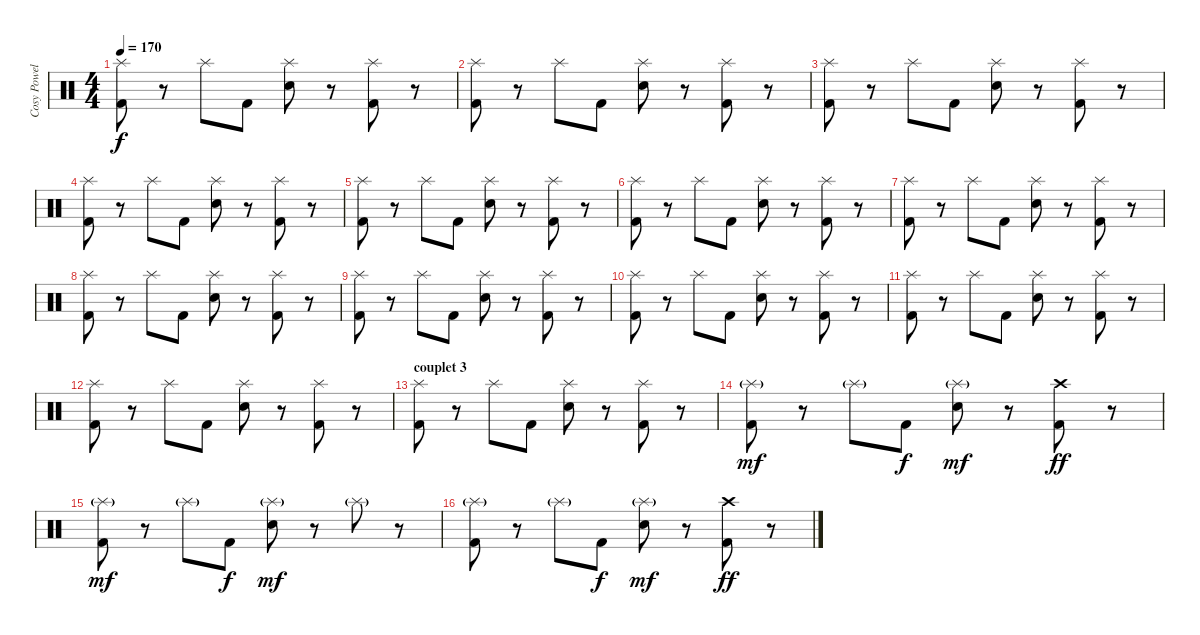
\track ("Cosy Powell" "Cosy Powel") {instrument percussion}
\staff {score}
\articulation defaults
\ts (4 4)
\tempo 170
\clef neutral
\ks c
("Splash (hit)" "Kick (hit) 2").8{dy f} r.8 "Splash (hit)".8 "Kick (hit) 2".8 ("Splash (hit)" "Snare (hit) 2").8 r.8 ("Splash (hit)" "Kick (hit) 2").8 r.8 |
("Splash (hit)" "Kick (hit) 2").8 r.8 "Splash (hit)".8 "Kick (hit) 2".8 ("Splash (hit)" "Snare (hit) 2").8 r.8 ("Splash (hit)" "Kick (hit) 2").8 r.8 |
("Splash (hit)" "Kick (hit) 2").8 r.8 "Splash (hit)".8 "Kick (hit) 2".8 ("Splash (hit)" "Snare (hit) 2").8 r.8 ("Splash (hit)" "Kick (hit) 2").8 r.8 |
("Splash (hit)" "Kick (hit) 2").8 r.8 "Splash (hit)".8 "Kick (hit) 2".8 ("Splash (hit)" "Snare (hit) 2").8 r.8 ("Splash (hit)" "Kick (hit) 2").8 r.8 |
("Splash (hit)" "Kick (hit) 2").8 r.8 "Splash (hit)".8 "Kick (hit) 2".8 ("Splash (hit)" "Snare (hit) 2").8 r.8 ("Splash (hit)" "Kick (hit) 2").8 r.8 |
("Splash (hit)" "Kick (hit) 2").8 r.8 "Splash (hit)".8 "Kick (hit) 2".8 ("Splash (hit)" "Snare (hit) 2").8 r.8 ("Splash (hit)" "Kick (hit) 2").8 r.8 |
("Splash (hit)" "Kick (hit) 2").8 r.8 "Splash (hit)".8 "Kick (hit) 2".8 ("Splash (hit)" "Snare (hit) 2").8 r.8 ("Splash (hit)" "Kick (hit) 2").8 r.8 |
("Splash (hit)" "Kick (hit) 2").8 r.8 "Splash (hit)".8 "Kick (hit) 2".8 ("Splash (hit)" "Snare (hit) 2").8 r.8 ("Splash (hit)" "Kick (hit) 2").8 r.8 |
("Splash (hit)" "Kick (hit) 2").8 r.8 "Splash (hit)".8 "Kick (hit) 2".8 ("Splash (hit)" "Snare (hit) 2").8 r.8 ("Splash (hit)" "Kick (hit) 2").8 r.8 |
("Splash (hit)" "Kick (hit) 2").8 r.8 "Splash (hit)".8 "Kick (hit) 2".8 ("Splash (hit)" "Snare (hit) 2").8 r.8 ("Splash (hit)" "Kick (hit) 2").8 r.8 |
("Splash (hit)" "Kick (hit) 2").8 r.8 "Splash (hit)".8 "Kick (hit) 2".8 ("Splash (hit)" "Snare (hit) 2").8 r.8 ("Splash (hit)" "Kick (hit) 2").8 r.8 |
("Splash (hit)" "Kick (hit) 2").8 r.8 "Splash (hit)".8 "Kick (hit) 2".8 ("Splash (hit)" "Snare (hit) 2").8 r.8 ("Splash (hit)" "Kick (hit) 2").8 r.8 |
\section ("" "couplet 3")
("Splash (hit)" "Kick (hit) 2").8 r.8 "Splash (hit)".8 "Kick (hit) 2".8 ("Splash (hit)" "Snare (hit) 2").8 r.8 ("Splash (hit)" "Kick (hit) 2").8 r.8 |
("Splash (hit)"{g} "Kick (hit) 2").8{dy mf} r.8 "Splash (hit)"{g}.8 "Kick (hit) 2".8{dy f} ("Splash (hit)"{g} "Snare (hit) 2").8{dy mf} r.8 ("Crash high (hit)" "Kick (hit) 2").8{dy ff} r.8 |
("Splash (hit)"{g} "Kick (hit) 2").8{dy mf} r.8 "Splash (hit)"{g}.8 "Kick (hit) 2".8{dy f} ("Splash (hit)"{g} "Snare (hit) 2").8{dy mf} r.8 "Splash (hit)"{g}.8 r.8 |
("Splash (hit)"{g} "Kick (hit) 2").8 r.8 "Splash (hit)"{g}.8 "Kick (hit) 2".8{dy f} ("Splash (hit)"{g} "Snare (hit) 2").8{dy mf} r.8 ("Crash high (hit)" "Kick (hit) 2").8{dy ff} r.8
